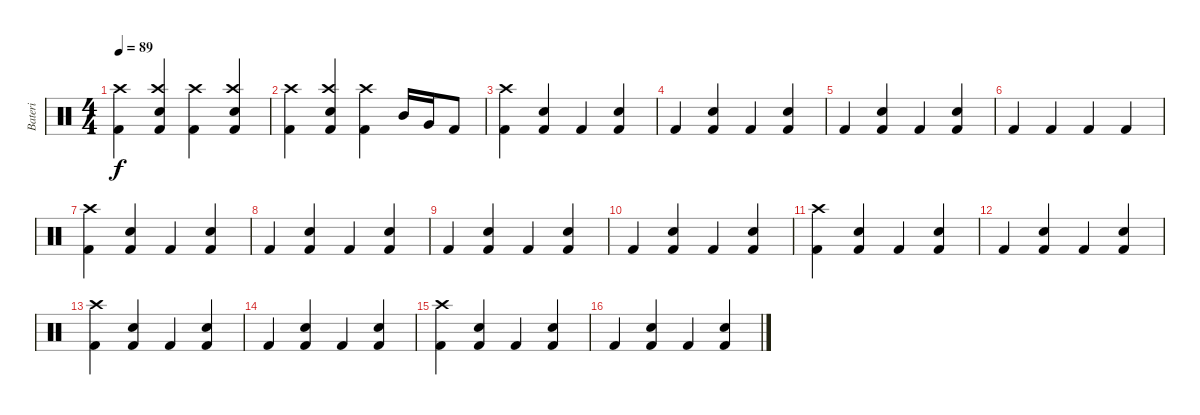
\track ("Bateri" "Bateri") {instrument percussion}
\staff {score}
\articulation defaults
\ts (4 4)
\tempo 89
\clef neutral
\ks c
("Kick (hit) 2" "Crash high (hit)").4{dy f} ("Kick (hit) 2" "Snare (hit) 2" "Crash high (hit)").4 ("Kick (hit) 2" "Crash high (hit)").4 ("Kick (hit) 2" "Snare (hit) 2" "Crash high (hit)").4 |
("Kick (hit) 2" "Crash high (hit)").4 ("Kick (hit) 2" "Snare (hit) 2" "Crash high (hit)").4 ("Kick (hit) 2" "Crash high (hit)").4 "Mid Tom (hit)".16 "Very Low Tom (hit)".16 "Kick (hit) 2".8 |
("Kick (hit) 2" "Crash high (hit)").4 ("Kick (hit) 2" "Snare (hit) 2").4 "Kick (hit) 2".4 ("Kick (hit) 2" "Snare (hit) 2").4 |
"Kick (hit) 2".4 ("Kick (hit) 2" "Snare (hit) 2").4 "Kick (hit) 2".4 ("Kick (hit) 2" "Snare (hit) 2").4 |
"Kick (hit) 2".4 ("Kick (hit) 2" "Snare (hit) 2").4 "Kick (hit) 2".4 ("Kick (hit) 2" "Snare (hit) 2").4 |
"Kick (hit) 2".4 "Kick (hit) 2".4 "Kick (hit) 2".4 "Kick (hit) 2".4 |
("Kick (hit) 2" "Crash high (hit)").4 ("Kick (hit) 2" "Snare (hit) 2").4 "Kick (hit) 2".4 ("Kick (hit) 2" "Snare (hit) 2").4 |
"Kick (hit) 2".4 ("Kick (hit) 2" "Snare (hit) 2").4 "Kick (hit) 2".4 ("Kick (hit) 2" "Snare (hit) 2").4 |
"Kick (hit) 2".4 ("Kick (hit) 2" "Snare (hit) 2").4 "Kick (hit) 2".4 ("Kick (hit) 2" "Snare (hit) 2").4 |
"Kick (hit) 2".4 ("Kick (hit) 2" "Snare (hit) 2").4 "Kick (hit) 2".4 ("Kick (hit) 2" "Snare (hit) 2").4 |
("Kick (hit) 2" "Crash high (hit)").4 ("Kick (hit) 2" "Snare (hit) 2").4 "Kick (hit) 2".4 ("Kick (hit) 2" "Snare (hit) 2").4 |
"Kick (hit) 2".4 ("Kick (hit) 2" "Snare (hit) 2").4 "Kick (hit) 2".4 ("Kick (hit) 2" "Snare (hit) 2").4 |
("Kick (hit) 2" "Crash high (hit)").4 ("Kick (hit) 2" "Snare (hit) 2").4 "Kick (hit) 2".4 ("Kick (hit) 2" "Snare (hit) 2").4 |
"Kick (hit) 2".4 ("Kick (hit) 2" "Snare (hit) 2").4 "Kick (hit) 2".4 ("Kick (hit) 2" "Snare (hit) 2").4 |
("Kick (hit) 2" "Crash high (hit)").4 ("Kick (hit) 2" "Snare (hit) 2").4 "Kick (hit) 2".4 ("Kick (hit) 2" "Snare (hit) 2").4 |
"Kick (hit) 2".4 ("Kick (hit) 2" "Snare (hit) 2").4 "Kick (hit) 2".4 ("Kick (hit) 2" "Snare (hit) 2").4
